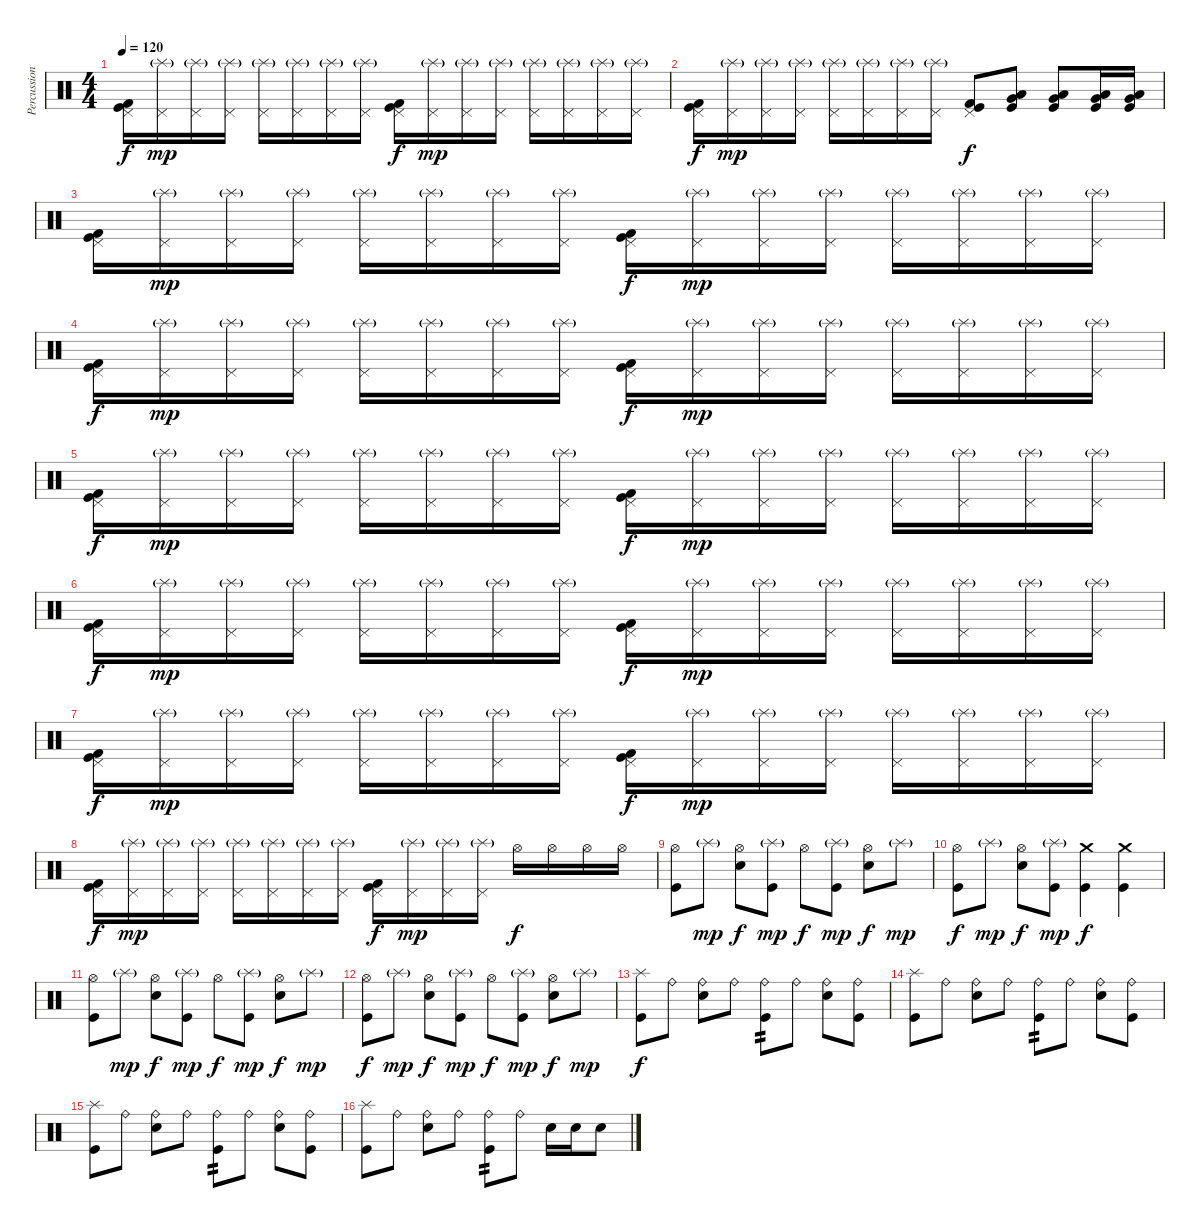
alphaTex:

\track ("Percussion" "Percussion") {instrument percussion}
\staff {score}
\articulation defaults
\ts (4 4)
\tempo 120
\clef neutral
\ks c
("Kick (hit) 2" "Pedal Hi-Hat (hit)" "Kick (hit)").16{dy f} ("Pedal Hi-Hat (hit)" "Splash (hit)"{g}).16{dy mp} ("Pedal Hi-Hat (hit)" "Splash (hit)"{g}).16 ("Pedal Hi-Hat (hit)" "Splash (hit)"{g}).16 ("Pedal Hi-Hat (hit)" "Splash (hit)"{g}).16 ("Pedal Hi-Hat (hit)" "Splash (hit)"{g}).16 ("Pedal Hi-Hat (hit)" "Splash (hit)"{g}).16 ("Pedal Hi-Hat (hit)" "Splash (hit)"{g}).16 ("Kick (hit) 2" "Pedal Hi-Hat (hit)" "Kick (hit)").16{dy f} ("Pedal Hi-Hat (hit)" "Splash (hit)"{g}).16{dy mp} ("Pedal Hi-Hat (hit)" "Splash (hit)"{g}).16 ("Pedal Hi-Hat (hit)" "Splash (hit)"{g}).16 ("Pedal Hi-Hat (hit)" "Splash (hit)"{g}).16 ("Pedal Hi-Hat (hit)" "Splash (hit)"{g}).16 ("Pedal Hi-Hat (hit)" "Splash (hit)"{g}).16 ("Pedal Hi-Hat (hit)" "Splash (hit)"{g}).16 |
("Kick (hit) 2" "Pedal Hi-Hat (hit)" "Kick (hit)").16{dy f} ("Pedal Hi-Hat (hit)" "Splash (hit)"{g}).16{dy mp} ("Pedal Hi-Hat (hit)" "Splash (hit)"{g}).16 ("Pedal Hi-Hat (hit)" "Splash (hit)"{g}).16 ("Pedal Hi-Hat (hit)" "Splash (hit)"{g}).16 ("Pedal Hi-Hat (hit)" "Splash (hit)"{g}).16 ("Pedal Hi-Hat (hit)" "Splash (hit)"{g}).16 ("Pedal Hi-Hat (hit)" "Splash (hit)"{g}).16 ("Kick (hit) 2" "Pedal Hi-Hat (hit)" "Kick (hit)").8{dy f} ("Very Low Tom (hit)" "Low Floor Tom (hit)" "Kick (hit)").8 ("Very Low Tom (hit)" "Low Floor Tom (hit)" "Kick (hit)").8 ("Very Low Tom (hit)" "Low Floor Tom (hit)" "Kick (hit)").16 ("Very Low Tom (hit)" "Low Floor Tom (hit)" "Kick (hit)").16 |
("Kick (hit) 2" "Pedal Hi-Hat (hit)" "Kick (hit)").16 ("Pedal Hi-Hat (hit)" "Splash (hit)"{g}).16{dy mp} ("Pedal Hi-Hat (hit)" "Splash (hit)"{g}).16 ("Pedal Hi-Hat (hit)" "Splash (hit)"{g}).16 ("Pedal Hi-Hat (hit)" "Splash (hit)"{g}).16 ("Pedal Hi-Hat (hit)" "Splash (hit)"{g}).16 ("Pedal Hi-Hat (hit)" "Splash (hit)"{g}).16 ("Pedal Hi-Hat (hit)" "Splash (hit)"{g}).16 ("Kick (hit) 2" "Pedal Hi-Hat (hit)" "Kick (hit)").16{dy f} ("Pedal Hi-Hat (hit)" "Splash (hit)"{g}).16{dy mp} ("Pedal Hi-Hat (hit)" "Splash (hit)"{g}).16 ("Pedal Hi-Hat (hit)" "Splash (hit)"{g}).16 ("Pedal Hi-Hat (hit)" "Splash (hit)"{g}).16 ("Pedal Hi-Hat (hit)" "Splash (hit)"{g}).16 ("Pedal Hi-Hat (hit)" "Splash (hit)"{g}).16 ("Pedal Hi-Hat (hit)" "Splash (hit)"{g}).16 |
("Kick (hit) 2" "Pedal Hi-Hat (hit)" "Kick (hit)").16{dy f} ("Pedal Hi-Hat (hit)" "Splash (hit)"{g}).16{dy mp} ("Pedal Hi-Hat (hit)" "Splash (hit)"{g}).16 ("Pedal Hi-Hat (hit)" "Splash (hit)"{g}).16 ("Pedal Hi-Hat (hit)" "Splash (hit)"{g}).16 ("Pedal Hi-Hat (hit)" "Splash (hit)"{g}).16 ("Pedal Hi-Hat (hit)" "Splash (hit)"{g}).16 ("Pedal Hi-Hat (hit)" "Splash (hit)"{g}).16 ("Kick (hit) 2" "Pedal Hi-Hat (hit)" "Kick (hit)").16{dy f} ("Pedal Hi-Hat (hit)" "Splash (hit)"{g}).16{dy mp} ("Pedal Hi-Hat (hit)" "Splash (hit)"{g}).16 ("Pedal Hi-Hat (hit)" "Splash (hit)"{g}).16 ("Pedal Hi-Hat (hit)" "Splash (hit)"{g}).16 ("Pedal Hi-Hat (hit)" "Splash (hit)"{g}).16 ("Pedal Hi-Hat (hit)" "Splash (hit)"{g}).16 ("Pedal Hi-Hat (hit)" "Splash (hit)"{g}).16 |
("Kick (hit) 2" "Pedal Hi-Hat (hit)" "Kick (hit)").16{dy f} ("Pedal Hi-Hat (hit)" "Splash (hit)"{g}).16{dy mp} ("Pedal Hi-Hat (hit)" "Splash (hit)"{g}).16 ("Pedal Hi-Hat (hit)" "Splash (hit)"{g}).16 ("Pedal Hi-Hat (hit)" "Splash (hit)"{g}).16 ("Pedal Hi-Hat (hit)" "Splash (hit)"{g}).16 ("Pedal Hi-Hat (hit)" "Splash (hit)"{g}).16 ("Pedal Hi-Hat (hit)" "Splash (hit)"{g}).16 ("Kick (hit) 2" "Pedal Hi-Hat (hit)" "Kick (hit)").16{dy f} ("Pedal Hi-Hat (hit)" "Splash (hit)"{g}).16{dy mp} ("Pedal Hi-Hat (hit)" "Splash (hit)"{g}).16 ("Pedal Hi-Hat (hit)" "Splash (hit)"{g}).16 ("Pedal Hi-Hat (hit)" "Splash (hit)"{g}).16 ("Pedal Hi-Hat (hit)" "Splash (hit)"{g}).16 ("Pedal Hi-Hat (hit)" "Splash (hit)"{g}).16 ("Pedal Hi-Hat (hit)" "Splash (hit)"{g}).16 |
("Kick (hit) 2" "Pedal Hi-Hat (hit)" "Kick (hit)").16{dy f} ("Pedal Hi-Hat (hit)" "Splash (hit)"{g}).16{dy mp} ("Pedal Hi-Hat (hit)" "Splash (hit)"{g}).16 ("Pedal Hi-Hat (hit)" "Splash (hit)"{g}).16 ("Pedal Hi-Hat (hit)" "Splash (hit)"{g}).16 ("Pedal Hi-Hat (hit)" "Splash (hit)"{g}).16 ("Pedal Hi-Hat (hit)" "Splash (hit)"{g}).16 ("Pedal Hi-Hat (hit)" "Splash (hit)"{g}).16 ("Kick (hit) 2" "Pedal Hi-Hat (hit)" "Kick (hit)").16{dy f} ("Pedal Hi-Hat (hit)" "Splash (hit)"{g}).16{dy mp} ("Pedal Hi-Hat (hit)" "Splash (hit)"{g}).16 ("Pedal Hi-Hat (hit)" "Splash (hit)"{g}).16 ("Pedal Hi-Hat (hit)" "Splash (hit)"{g}).16 ("Pedal Hi-Hat (hit)" "Splash (hit)"{g}).16 ("Pedal Hi-Hat (hit)" "Splash (hit)"{g}).16 ("Pedal Hi-Hat (hit)" "Splash (hit)"{g}).16 |
("Kick (hit) 2" "Pedal Hi-Hat (hit)" "Kick (hit)").16{dy f} ("Pedal Hi-Hat (hit)" "Splash (hit)"{g}).16{dy mp} ("Pedal Hi-Hat (hit)" "Splash (hit)"{g}).16 ("Pedal Hi-Hat (hit)" "Splash (hit)"{g}).16 ("Pedal Hi-Hat (hit)" "Splash (hit)"{g}).16 ("Pedal Hi-Hat (hit)" "Splash (hit)"{g}).16 ("Pedal Hi-Hat (hit)" "Splash (hit)"{g}).16 ("Pedal Hi-Hat (hit)" "Splash (hit)"{g}).16 ("Kick (hit) 2" "Pedal Hi-Hat (hit)" "Kick (hit)").16{dy f} ("Pedal Hi-Hat (hit)" "Splash (hit)"{g}).16{dy mp} ("Pedal Hi-Hat (hit)" "Splash (hit)"{g}).16 ("Pedal Hi-Hat (hit)" "Splash (hit)"{g}).16 ("Pedal Hi-Hat (hit)" "Splash (hit)"{g}).16 ("Pedal Hi-Hat (hit)" "Splash (hit)"{g}).16 ("Pedal Hi-Hat (hit)" "Splash (hit)"{g}).16 ("Pedal Hi-Hat (hit)" "Splash (hit)"{g}).16 |
("Kick (hit) 2" "Pedal Hi-Hat (hit)" "Kick (hit)").16{dy f} ("Pedal Hi-Hat (hit)" "Splash (hit)"{g}).16{dy mp} ("Pedal Hi-Hat (hit)" "Splash (hit)"{g}).16 ("Pedal Hi-Hat (hit)" "Splash (hit)"{g}).16 ("Pedal Hi-Hat (hit)" "Splash (hit)"{g}).16 ("Pedal Hi-Hat (hit)" "Splash (hit)"{g}).16 ("Pedal Hi-Hat (hit)" "Splash (hit)"{g}).16 ("Pedal Hi-Hat (hit)" "Splash (hit)"{g}).16 ("Kick (hit) 2" "Pedal Hi-Hat (hit)" "Kick (hit)").16{dy f} ("Pedal Hi-Hat (hit)" "Splash (hit)"{g}).16{dy mp} ("Pedal Hi-Hat (hit)" "Splash (hit)"{g}).16 ("Pedal Hi-Hat (hit)" "Splash (hit)"{g}).16 "Hi-Hat (open)".16{dy f} "Hi-Hat (open)".16 "Hi-Hat (open)".16 "Hi-Hat (open)".16 |
("Hi-Hat (open)" "Kick (hit)").8 "Splash (hit)"{g}.8{dy mp} ("Hi-Hat (open)" "Electric Snare (hit)").8{dy f} ("Splash (hit)"{g} "Kick (hit)").8{dy mp} "Hi-Hat (open)".8{dy f} ("Splash (hit)"{g} "Kick (hit)").8{dy mp} ("Hi-Hat (open)" "Electric Snare (hit)").8{dy f} "Splash (hit)"{g}.8{dy mp} |
("Hi-Hat (open)" "Kick (hit)").8{dy f} "Splash (hit)"{g}.8{dy mp} ("Hi-Hat (open)" "Electric Snare (hit)").8{dy f} ("Splash (hit)"{g} "Kick (hit)").8{dy mp} ("Crash medium (hit)" "Kick (hit)").4{dy f} ("Crash medium (hit)" "Kick (hit)").4 |
("Hi-Hat (open)" "Kick (hit)").8 "Splash (hit)"{g}.8{dy mp} ("Hi-Hat (open)" "Electric Snare (hit)").8{dy f} ("Splash (hit)"{g} "Kick (hit)").8{dy mp} "Hi-Hat (open)".8{dy f} ("Splash (hit)"{g} "Kick (hit)").8{dy mp} ("Hi-Hat (open)" "Electric Snare (hit)").8{dy f} "Splash (hit)"{g}.8{dy mp} |
("Hi-Hat (open)" "Kick (hit)").8{dy f} "Splash (hit)"{g}.8{dy mp} ("Hi-Hat (open)" "Electric Snare (hit)").8{dy f} ("Splash (hit)"{g} "Kick (hit)").8{dy mp} "Hi-Hat (open)".8{dy f} ("Splash (hit)"{g} "Kick (hit)").8{dy mp} ("Hi-Hat (open)" "Electric Snare (hit)").8{dy f} "Splash (hit)"{g}.8{dy mp} |
("Kick (hit)" "Splash (hit)").8{dy f} "Ride (bell)".8 ("Electric Snare (hit)" "Ride (bell)").8 "Ride (bell)".8 ("Kick (hit)" "Ride (bell)").8{tp 2} "Ride (bell)".8 ("Electric Snare (hit)" "Ride (bell)").8 ("Kick (hit)" "Ride (bell)").8 |
("Kick (hit)" "Splash (hit)").8 "Ride (bell)".8 ("Electric Snare (hit)" "Ride (bell)").8 "Ride (bell)".8 ("Kick (hit)" "Ride (bell)").8{tp 2} "Ride (bell)".8 ("Electric Snare (hit)" "Ride (bell)").8 ("Kick (hit)" "Ride (bell)").8 |
("Kick (hit)" "Splash (hit)").8 "Ride (bell)".8 ("Electric Snare (hit)" "Ride (bell)").8 "Ride (bell)".8 ("Kick (hit)" "Ride (bell)").8{tp 2} "Ride (bell)".8 ("Electric Snare (hit)" "Ride (bell)").8 ("Kick (hit)" "Ride (bell)").8 |
("Kick (hit)" "Splash (hit)").8 "Ride (bell)".8 ("Electric Snare (hit)" "Ride (bell)").8 "Ride (bell)".8 ("Kick (hit)" "Ride (bell)").8{tp 2} "Ride (bell)".8 "Electric Snare (hit)".16 "Electric Snare (hit)".16 "Electric Snare (hit)".8
